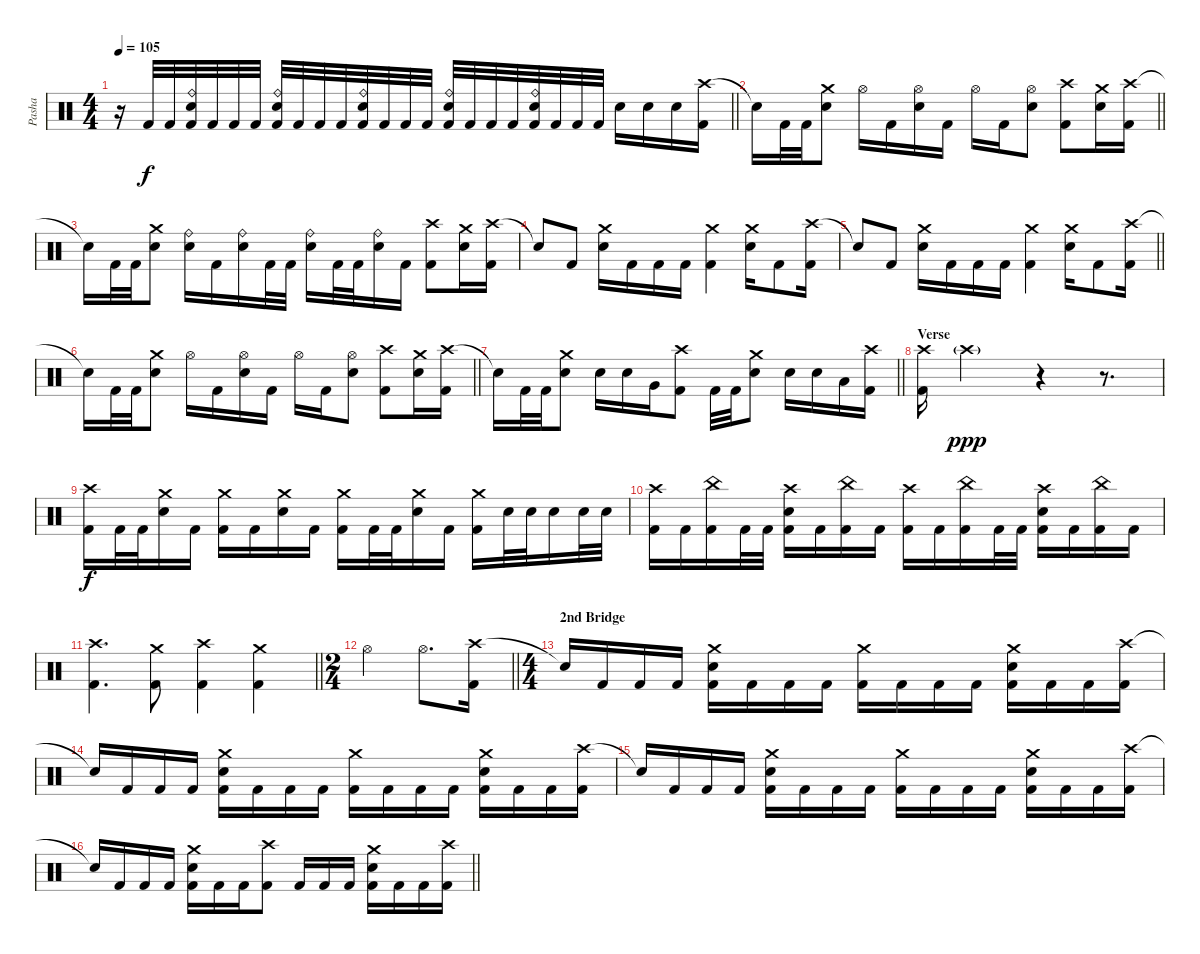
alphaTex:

\track ("Pasha" "Pasha") {instrument percussion}
\staff {score}
\articulation defaults
\ts (4 4)
\tempo 105
\clef neutral
\barLineRight lightlight
\ks c
r.16{dy f} "Kick (hit) 2".32 "Kick (hit) 2".32 ("Ride (bell)" "Electric Snare (hit)" "Kick (hit) 2").32 "Kick (hit) 2".32 "Kick (hit) 2".32 "Kick (hit) 2".32 ("Ride (bell)" "Electric Snare (hit)" "Kick (hit) 2").32 "Kick (hit) 2".32 "Kick (hit) 2".32 "Kick (hit) 2".32 ("Ride (bell)" "Electric Snare (hit)" "Kick (hit) 2").32 "Kick (hit) 2".32 "Kick (hit) 2".32 "Kick (hit) 2".32 ("Ride (bell)" "Electric Snare (hit)" "Kick (hit) 2").32 "Kick (hit) 2".32 "Kick (hit) 2".32 "Kick (hit) 2".32 ("Ride (bell)" "Electric Snare (hit)" "Kick (hit) 2").32 "Kick (hit) 2".32 "Kick (hit) 2".32 "Kick (hit) 2".32 "Electric Snare (hit)".16 "Electric Snare (hit)".16 "Electric Snare (hit)".16 ("Crash high (hit)" "Kick (hit) 2").16 |
\section ("" "")
\barLineRight lightlight "Snare (hit)"{t}.16 "Kick (hit) 2".32 "Kick (hit) 2".32
("Crash medium (hit)" "Electric Snare (hit)").8 "Hi-Hat (open)".16 "Kick (hit) 2".16 ("Hi-Hat (open)" "Electric Snare (hit)").16 "Kick (hit) 2".16 "Hi-Hat (open)".16 "Kick (hit) 2".16 ("Hi-Hat (open)" "Electric Snare (hit)").8 ("Crash high (hit)" "Kick (hit) 2").8 ("Crash medium (hit)" "Electric Snare (hit)").16 ("Crash high (hit)" "Kick (hit) 2").16 |
"Snare (hit)"{t}.16 "Kick (hit) 2".32 "Kick (hit) 2".32 ("Crash medium (hit)" "Electric Snare (hit)").8 ("Ride (bell)" "Electric Snare (hit)").16 "Kick (hit) 2".16 ("Ride (bell)" "Electric Snare (hit)").16 "Kick (hit) 2".32 "Kick (hit) 2".32 ("Ride (bell)" "Electric Snare (hit)").16 "Kick (hit) 2".32 "Kick (hit) 2".32 ("Ride (bell)" "Electric Snare (hit)").16 "Kick (hit) 2".16 ("Crash high (hit)" "Kick (hit) 2").8 ("Crash medium (hit)" "Electric Snare (hit)").16 ("Crash high (hit)" "Kick (hit) 2").16 |
"Snare (hit)"{t}.8 "Kick (hit) 2".8 ("Crash medium (hit)" "Electric Snare (hit)").16 "Kick (hit) 2".16 "Kick (hit) 2".16 "Kick (hit) 2".16 ("Crash medium (hit)" "Kick (hit) 2").4 ("Crash medium (hit)" "Electric Snare (hit)").16 "Kick (hit) 2".8 ("Crash high (hit)" "Kick (hit) 2").16 |
\barLineRight lightlight "Snare (hit)"{t}.8 "Kick (hit) 2".8
("Crash medium (hit)" "Electric Snare (hit)").16 "Kick (hit) 2".16 "Kick (hit) 2".16 "Kick (hit) 2".16 ("Crash medium (hit)" "Kick (hit) 2").4 ("Crash medium (hit)" "Electric Snare (hit)").16 "Kick (hit) 2".8 ("Crash high (hit)" "Kick (hit) 2").16 |
\section ("" "")
\barLineRight lightlight "Snare (hit)"{t}.16 "Kick (hit) 2".32 "Kick (hit) 2".32
("Crash medium (hit)" "Electric Snare (hit)").8 "Hi-Hat (open)".16 "Kick (hit) 2".16 ("Hi-Hat (open)" "Electric Snare (hit)").16 "Kick (hit) 2".16 "Hi-Hat (open)".16 "Kick (hit) 2".16 ("Hi-Hat (open)" "Electric Snare (hit)").8 ("Crash high (hit)" "Kick (hit) 2").8 ("Crash medium (hit)" "Electric Snare (hit)").16 ("Crash high (hit)" "Kick (hit) 2").16 |
\barLineRight lightlight "Snare (hit)"{t}.16 "Kick (hit) 2".32 "Kick (hit) 2".32
("Crash medium (hit)" "Electric Snare (hit)").8 "Electric Snare (hit)".16 "Electric Snare (hit)".16 "Very Low Tom (hit)".16 ("Crash high (hit)" "Kick (hit) 2").8 "Kick (hit) 2".32 "Kick (hit) 2".32 ("Crash medium (hit)" "Electric Snare (hit)").8 "Electric Snare (hit)".16 "Electric Snare (hit)".16 "Low Floor Tom (hit)".16 ("Crash high (hit)" "Kick (hit) 2").16 |
\section ("" "Verse")
("Crash high (hit)" "Kick (hit) 2").16 "Crash high (hit)"{g}.2{dy ppp} r.4 r.8{d} |
("Crash high (hit)" "Kick (hit) 2").16{dy f} "Kick (hit) 2".32 "Kick (hit) 2".32 ("Crash medium (hit)" "Electric Snare (hit)").16 "Kick (hit) 2".16 ("Crash medium (hit)" "Kick (hit) 2").16 "Kick (hit) 2".16 ("Crash medium (hit)" "Electric Snare (hit)").16 "Kick (hit) 2".16 ("Crash medium (hit)" "Kick (hit) 2").16 "Kick (hit) 2".32 "Kick (hit) 2".32 ("Crash medium (hit)" "Electric Snare (hit)").16 "Kick (hit) 2".16 ("Crash medium (hit)" "Kick (hit) 2").16 "Electric Snare (hit)".32 "Electric Snare (hit)".32 "Electric Snare (hit)".16 "Electric Snare (hit)".32 "Electric Snare (hit)".32 |
("Crash high (hit)" "Kick (hit) 2").16 "Kick (hit) 2".16 ("China (hit)" "Kick (hit) 2").16 "Kick (hit) 2".32 "Kick (hit) 2".32 ("Crash high (hit)" "Electric Snare (hit)" "Kick (hit) 2").16 "Kick (hit) 2".16 ("China (hit)" "Kick (hit) 2").16 "Kick (hit) 2".16 ("Crash high (hit)" "Kick (hit) 2").16 "Kick (hit) 2".16 ("China (hit)" "Kick (hit) 2").16 "Kick (hit) 2".32 "Kick (hit) 2".32 ("Crash high (hit)" "Electric Snare (hit)" "Kick (hit) 2").16 "Kick (hit) 2".16 ("China (hit)" "Kick (hit) 2").16 "Kick (hit) 2".16 |
\barLineRight lightlight
("Crash high (hit)" "Kick (hit) 2").4{d} ("Crash medium (hit)" "Kick (hit) 2").8 ("Crash high (hit)" "Kick (hit) 2").4 ("Crash medium (hit)" "Kick (hit) 2").4 |
\ts (2 4)
\section ("" "")
\barLineRight lightlight "Hi-Hat (open)".4 "Hi-Hat (open)".8{d}
("Crash high (hit)" "Kick (hit) 2").16 |
\ts (4 4)
\section ("" "2nd Bridge")
"Snare (hit)"{t}.16 "Kick (hit) 2".16 "Kick (hit) 2".16 "Kick (hit) 2".16 ("Crash medium (hit)" "Electric Snare (hit)" "Kick (hit) 2").16 "Kick (hit) 2".16 "Kick (hit) 2".16 "Kick (hit) 2".16 ("Crash medium (hit)" "Kick (hit) 2").16 "Kick (hit) 2".16 "Kick (hit) 2".16 "Kick (hit) 2".16 ("Crash medium (hit)" "Electric Snare (hit)" "Kick (hit) 2").16 "Kick (hit) 2".16 "Kick (hit) 2".16 ("Crash high (hit)" "Kick (hit) 2").16 |
"Snare (hit)"{t}.16 "Kick (hit) 2".16 "Kick (hit) 2".16 "Kick (hit) 2".16 ("Crash medium (hit)" "Electric Snare (hit)" "Kick (hit) 2").16 "Kick (hit) 2".16 "Kick (hit) 2".16 "Kick (hit) 2".16 ("Crash medium (hit)" "Kick (hit) 2").16 "Kick (hit) 2".16 "Kick (hit) 2".16 "Kick (hit) 2".16 ("Crash medium (hit)" "Electric Snare (hit)" "Kick (hit) 2").16 "Kick (hit) 2".16 "Kick (hit) 2".16 ("Crash high (hit)" "Kick (hit) 2").16 |
"Snare (hit)"{t}.16 "Kick (hit) 2".16 "Kick (hit) 2".16 "Kick (hit) 2".16 ("Crash medium (hit)" "Electric Snare (hit)" "Kick (hit) 2").16 "Kick (hit) 2".16 "Kick (hit) 2".16 "Kick (hit) 2".16 ("Crash medium (hit)" "Kick (hit) 2").16 "Kick (hit) 2".16 "Kick (hit) 2".16 "Kick (hit) 2".16 ("Crash medium (hit)" "Electric Snare (hit)" "Kick (hit) 2").16 "Kick (hit) 2".16 "Kick (hit) 2".16 ("Crash high (hit)" "Kick (hit) 2").16 |
\barLineRight lightlight "Snare (hit)"{t}.16 "Kick (hit) 2".16 "Kick (hit) 2".16 "Kick (hit) 2".16
("Crash medium (hit)" "Electric Snare (hit)" "Kick (hit) 2").16 "Kick (hit) 2".16 "Kick (hit) 2".16 ("Crash high (hit)" "Kick (hit) 2").8 "Kick (hit) 2".16 "Kick (hit) 2".16 "Kick (hit) 2".16 ("Crash medium (hit)" "Electric Snare (hit)" "Kick (hit) 2").16 "Kick (hit) 2".16 "Kick (hit) 2".16 ("Crash high (hit)" "Kick (hit) 2").16
